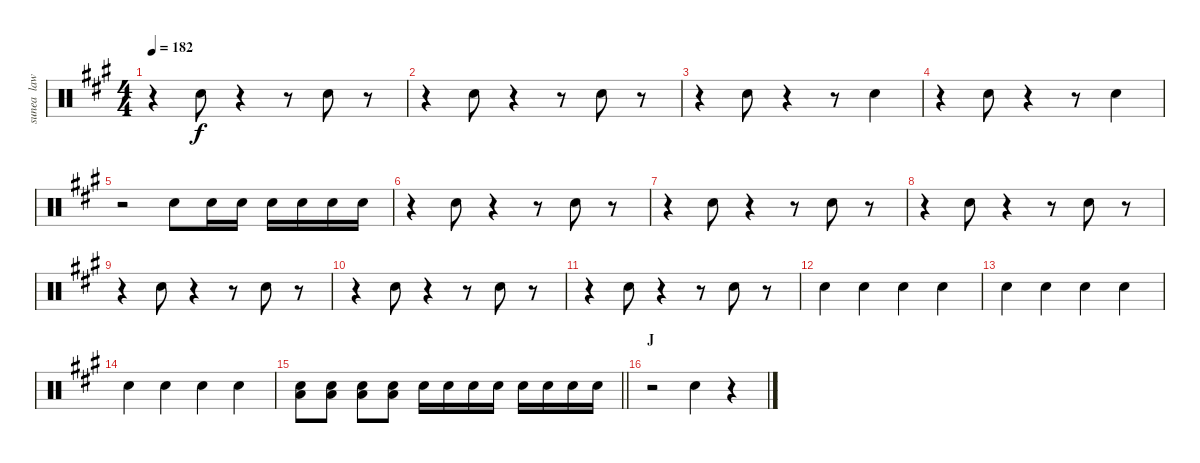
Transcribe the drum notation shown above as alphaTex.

\track ("sunea  law tam" "sunea  law") {instrument percussion}
\staff {score}
\articulation defaults
\ts (4 4)
\tempo 182
\clef neutral
\ks f#minor
r.4{dy f} "Snare (hit) 2".8 r.4 r.8 "Snare (hit) 2".8 r.8 |
r.4 "Snare (hit) 2".8 r.4 r.8 "Snare (hit) 2".8 r.8 |
r.4 "Snare (hit) 2".8 r.4 r.8 "Snare (hit) 2".4 |
r.4 "Snare (hit) 2".8 r.4 r.8 "Snare (hit) 2".4 |
r.2 "Snare (hit) 2".8 "Snare (hit) 2".16 "Snare (hit) 2".16 "Snare (hit) 2".16 "Snare (hit) 2".16 "Snare (hit) 2".16 "Snare (hit) 2".16 |
r.4 "Snare (hit) 2".8 r.4 r.8 "Snare (hit) 2".8 r.8 |
r.4 "Snare (hit) 2".8 r.4 r.8 "Snare (hit) 2".8 r.8 |
r.4 "Snare (hit) 2".8 r.4 r.8 "Snare (hit) 2".8 r.8 |
r.4 "Snare (hit) 2".8 r.4 r.8 "Snare (hit) 2".8 r.8 |
r.4 "Snare (hit) 2".8 r.4 r.8 "Snare (hit) 2".8 r.8 |
r.4 "Snare (hit) 2".8 r.4 r.8 "Snare (hit) 2".8 r.8 |
"Snare (hit) 2".4 "Snare (hit) 2".4 "Snare (hit) 2".4 "Snare (hit) 2".4 |
"Snare (hit) 2".4 "Snare (hit) 2".4 "Snare (hit) 2".4 "Snare (hit) 2".4 |
"Snare (hit) 2".4 "Snare (hit) 2".4 "Snare (hit) 2".4 "Snare (hit) 2".4 |
\barLineRight lightlight
("Snare (hit) 2" "Low Tom (hit)").8 ("Snare (hit) 2" "Low Tom (hit)").8 ("Snare (hit) 2" "Low Tom (hit)").8 ("Snare (hit) 2" "Low Tom (hit)").8 "Snare (hit) 2".16 "Snare (hit) 2".16 "Snare (hit) 2".16 "Snare (hit) 2".16 "Snare (hit) 2".16 "Snare (hit) 2".16 "Snare (hit) 2".16 "Snare (hit) 2".16 |
\section ("" "J")
r.2 "Snare (hit) 2".4 r.4
